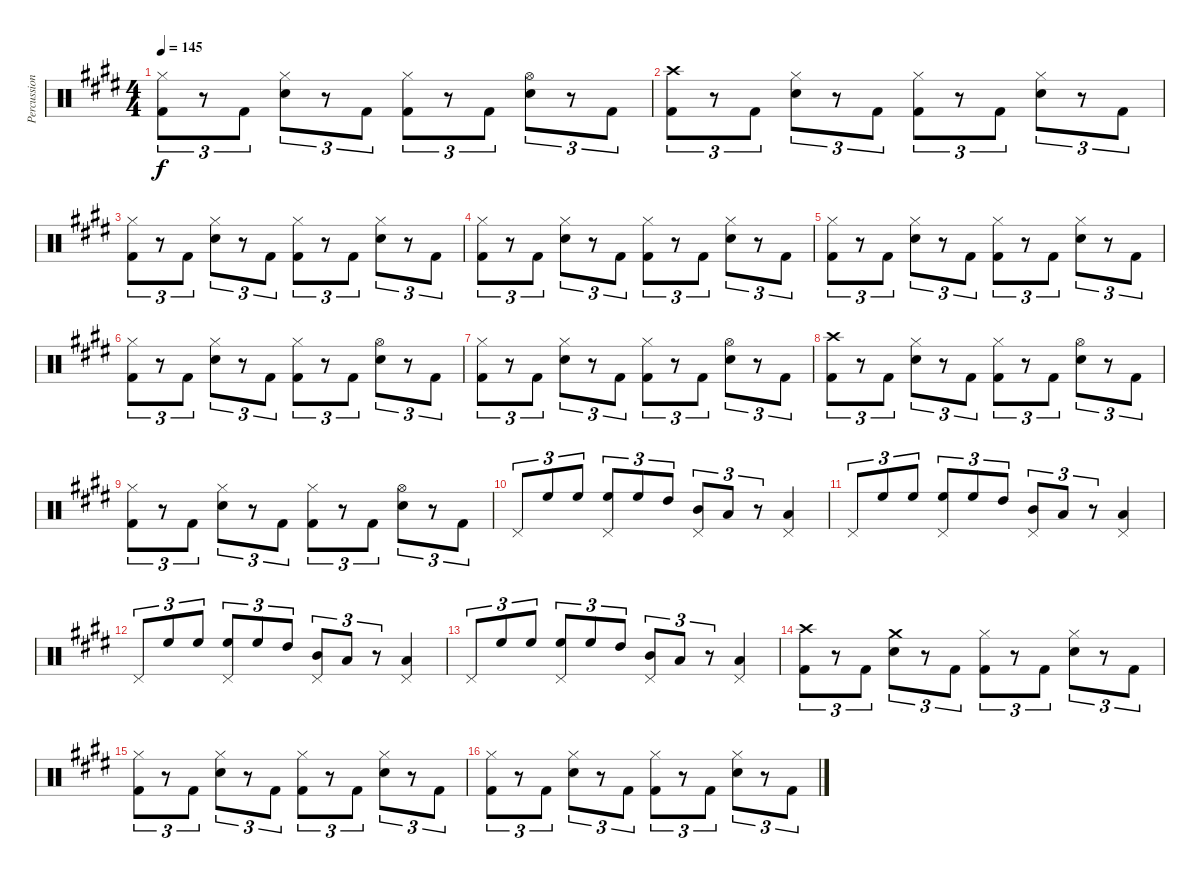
\track ("Percussions" "Percussion") {solo instrument percussion}
\staff {score}
\articulation defaults
\ts (4 4)
\tempo 145
\clef neutral
\ks e
("Hi-Hat (closed)" "Kick (hit) 2").8{tu (3 2) dy f} r.8{tu (3 2)} "Kick (hit) 2".8{tu (3 2)} ("Hi-Hat (closed)" "Snare (hit) 2").8{tu (3 2)} r.8{tu (3 2)} "Kick (hit) 2".8{tu (3 2)} ("Hi-Hat (closed)" "Kick (hit) 2").8{tu (3 2)} r.8{tu (3 2)} "Kick (hit) 2".8{tu (3 2)} ("Hi-Hat (open)" "Snare (hit) 2").8{tu (3 2)} r.8{tu (3 2)} "Kick (hit) 2".8{tu (3 2)} |
("Crash high (hit)" "Kick (hit) 2").8{tu (3 2)} r.8{tu (3 2)} "Kick (hit) 2".8{tu (3 2)} ("Hi-Hat (closed)" "Snare (hit) 2").8{tu (3 2)} r.8{tu (3 2)} "Kick (hit) 2".8{tu (3 2)} ("Hi-Hat (closed)" "Kick (hit) 2").8{tu (3 2)} r.8{tu (3 2)} "Kick (hit) 2".8{tu (3 2)} ("Hi-Hat (closed)" "Snare (hit) 2").8{tu (3 2)} r.8{tu (3 2)} "Kick (hit) 2".8{tu (3 2)} |
("Hi-Hat (closed)" "Kick (hit) 2").8{tu (3 2)} r.8{tu (3 2)} "Kick (hit) 2".8{tu (3 2)} ("Hi-Hat (closed)" "Snare (hit) 2").8{tu (3 2)} r.8{tu (3 2)} "Kick (hit) 2".8{tu (3 2)} ("Hi-Hat (closed)" "Kick (hit) 2").8{tu (3 2)} r.8{tu (3 2)} "Kick (hit) 2".8{tu (3 2)} ("Hi-Hat (closed)" "Snare (hit) 2").8{tu (3 2)} r.8{tu (3 2)} "Kick (hit) 2".8{tu (3 2)} |
("Hi-Hat (closed)" "Kick (hit) 2").8{tu (3 2)} r.8{tu (3 2)} "Kick (hit) 2".8{tu (3 2)} ("Hi-Hat (closed)" "Snare (hit) 2").8{tu (3 2)} r.8{tu (3 2)} "Kick (hit) 2".8{tu (3 2)} ("Hi-Hat (closed)" "Kick (hit) 2").8{tu (3 2)} r.8{tu (3 2)} "Kick (hit) 2".8{tu (3 2)} ("Hi-Hat (closed)" "Snare (hit) 2").8{tu (3 2)} r.8{tu (3 2)} "Kick (hit) 2".8{tu (3 2)} |
("Hi-Hat (closed)" "Kick (hit) 2").8{tu (3 2)} r.8{tu (3 2)} "Kick (hit) 2".8{tu (3 2)} ("Hi-Hat (closed)" "Snare (hit) 2").8{tu (3 2)} r.8{tu (3 2)} "Kick (hit) 2".8{tu (3 2)} ("Hi-Hat (closed)" "Kick (hit) 2").8{tu (3 2)} r.8{tu (3 2)} "Kick (hit) 2".8{tu (3 2)} ("Hi-Hat (closed)" "Snare (hit) 2").8{tu (3 2)} r.8{tu (3 2)} "Kick (hit) 2".8{tu (3 2)} |
("Hi-Hat (closed)" "Kick (hit) 2").8{tu (3 2)} r.8{tu (3 2)} "Kick (hit) 2".8{tu (3 2)} ("Hi-Hat (closed)" "Snare (hit) 2").8{tu (3 2)} r.8{tu (3 2)} "Kick (hit) 2".8{tu (3 2)} ("Hi-Hat (closed)" "Kick (hit) 2").8{tu (3 2)} r.8{tu (3 2)} "Kick (hit) 2".8{tu (3 2)} ("Hi-Hat (open)" "Snare (hit) 2").8{tu (3 2)} r.8{tu (3 2)} "Kick (hit) 2".8{tu (3 2)} |
("Hi-Hat (closed)" "Kick (hit) 2").8{tu (3 2)} r.8{tu (3 2)} "Kick (hit) 2".8{tu (3 2)} ("Hi-Hat (closed)" "Snare (hit) 2").8{tu (3 2)} r.8{tu (3 2)} "Kick (hit) 2".8{tu (3 2)} ("Hi-Hat (closed)" "Kick (hit) 2").8{tu (3 2)} r.8{tu (3 2)} "Kick (hit) 2".8{tu (3 2)} ("Hi-Hat (open)" "Snare (hit) 2").8{tu (3 2)} r.8{tu (3 2)} "Kick (hit) 2".8{tu (3 2)} |
("Crash high (hit)" "Kick (hit) 2").8{tu (3 2)} r.8{tu (3 2)} "Kick (hit) 2".8{tu (3 2)} ("Hi-Hat (closed)" "Snare (hit) 2").8{tu (3 2)} r.8{tu (3 2)} "Kick (hit) 2".8{tu (3 2)} ("Hi-Hat (closed)" "Kick (hit) 2").8{tu (3 2)} r.8{tu (3 2)} "Kick (hit) 2".8{tu (3 2)} ("Hi-Hat (open)" "Snare (hit) 2").8{tu (3 2)} r.8{tu (3 2)} "Kick (hit) 2".8{tu (3 2)} |
("Hi-Hat (closed)" "Kick (hit) 2").8{tu (3 2)} r.8{tu (3 2)} "Kick (hit) 2".8{tu (3 2)} ("Hi-Hat (closed)" "Snare (hit) 2").8{tu (3 2)} r.8{tu (3 2)} "Kick (hit) 2".8{tu (3 2)} ("Hi-Hat (closed)" "Kick (hit) 2").8{tu (3 2)} r.8{tu (3 2)} "Kick (hit) 2".8{tu (3 2)} ("Hi-Hat (open)" "Snare (hit) 2").8{tu (3 2)} r.8{tu (3 2)} "Kick (hit) 2".8{tu (3 2)} |
"Pedal Hi-Hat (hit)".8{tu (3 2)} "High Floor Tom (hit)".8{tu (3 2)} "High Floor Tom (hit)".8{tu (3 2)} ("High Floor Tom (hit)" "Pedal Hi-Hat (hit)").8{tu (3 2)} "High Floor Tom (hit)".8{tu (3 2)} "High Tom (hit)".8{tu (3 2)} ("Mid Tom (hit)" "Pedal Hi-Hat (hit)").8{tu (3 2)} "Low Tom (hit)".8{tu (3 2)} r.8{tu (3 2)} ("Low Tom (hit)" "Pedal Hi-Hat (hit)").4 |
"Pedal Hi-Hat (hit)".8{tu (3 2)} "High Floor Tom (hit)".8{tu (3 2)} "High Floor Tom (hit)".8{tu (3 2)} ("High Floor Tom (hit)" "Pedal Hi-Hat (hit)").8{tu (3 2)} "High Floor Tom (hit)".8{tu (3 2)} "High Tom (hit)".8{tu (3 2)} ("Mid Tom (hit)" "Pedal Hi-Hat (hit)").8{tu (3 2)} "Low Tom (hit)".8{tu (3 2)} r.8{tu (3 2)} ("Low Tom (hit)" "Pedal Hi-Hat (hit)").4 |
"Pedal Hi-Hat (hit)".8{tu (3 2)} "High Floor Tom (hit)".8{tu (3 2)} "High Floor Tom (hit)".8{tu (3 2)} ("High Floor Tom (hit)" "Pedal Hi-Hat (hit)").8{tu (3 2)} "High Floor Tom (hit)".8{tu (3 2)} "High Tom (hit)".8{tu (3 2)} ("Mid Tom (hit)" "Pedal Hi-Hat (hit)").8{tu (3 2)} "Low Tom (hit)".8{tu (3 2)} r.8{tu (3 2)} ("Low Tom (hit)" "Pedal Hi-Hat (hit)").4 |
"Pedal Hi-Hat (hit)".8{tu (3 2)} "High Floor Tom (hit)".8{tu (3 2)} "High Floor Tom (hit)".8{tu (3 2)} ("High Floor Tom (hit)" "Pedal Hi-Hat (hit)").8{tu (3 2)} "High Floor Tom (hit)".8{tu (3 2)} "High Tom (hit)".8{tu (3 2)} ("Mid Tom (hit)" "Pedal Hi-Hat (hit)").8{tu (3 2)} "Low Tom (hit)".8{tu (3 2)} r.8{tu (3 2)} ("Low Tom (hit)" "Pedal Hi-Hat (hit)").4 |
("Crash high (hit)" "Kick (hit) 2").8{tu (3 2)} r.8{tu (3 2)} "Kick (hit) 2".8{tu (3 2)} ("Crash medium (hit)" "Snare (hit) 2").8{tu (3 2)} r.8{tu (3 2)} "Kick (hit) 2".8{tu (3 2)} ("Hi-Hat (closed)" "Kick (hit) 2").8{tu (3 2)} r.8{tu (3 2)} "Kick (hit) 2".8{tu (3 2)} ("Hi-Hat (closed)" "Snare (hit) 2").8{tu (3 2)} r.8{tu (3 2)} "Kick (hit) 2".8{tu (3 2)} |
("Hi-Hat (closed)" "Kick (hit) 2").8{tu (3 2)} r.8{tu (3 2)} "Kick (hit) 2".8{tu (3 2)} ("Hi-Hat (closed)" "Snare (hit) 2").8{tu (3 2)} r.8{tu (3 2)} "Kick (hit) 2".8{tu (3 2)} ("Hi-Hat (closed)" "Kick (hit) 2").8{tu (3 2)} r.8{tu (3 2)} "Kick (hit) 2".8{tu (3 2)} ("Hi-Hat (closed)" "Snare (hit) 2").8{tu (3 2)} r.8{tu (3 2)} "Kick (hit) 2".8{tu (3 2)} |
("Hi-Hat (closed)" "Kick (hit) 2").8{tu (3 2)} r.8{tu (3 2)} "Kick (hit) 2".8{tu (3 2)} ("Hi-Hat (closed)" "Snare (hit) 2").8{tu (3 2)} r.8{tu (3 2)} "Kick (hit) 2".8{tu (3 2)} ("Hi-Hat (closed)" "Kick (hit) 2").8{tu (3 2)} r.8{tu (3 2)} "Kick (hit) 2".8{tu (3 2)} ("Hi-Hat (closed)" "Snare (hit) 2").8{tu (3 2)} r.8{tu (3 2)} "Kick (hit) 2".8{tu (3 2)}
